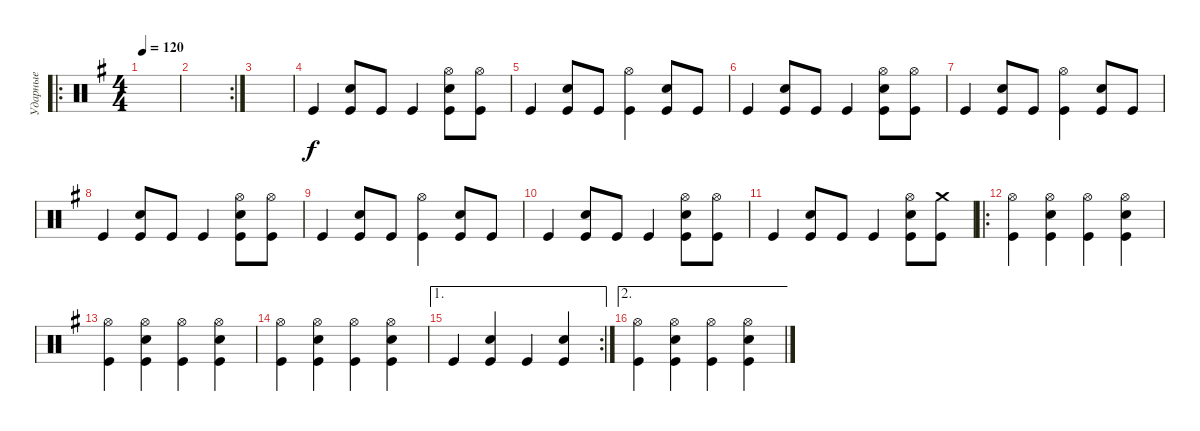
\track ("Ударные" "Ударные") {instrument percussion}
\staff {score}
\articulation defaults
\ro
\ts (4 4)
\tempo 120
\clef neutral
\ks g
|
\rc 2
|
|
"Kick (hit)".4 ("Kick (hit)" "Snare (hit) 2").8 "Kick (hit)".8 "Kick (hit)".4 ("Kick (hit)" "Snare (hit) 2" "Hi-Hat (open)").8 ("Kick (hit)" "Hi-Hat (open)").8 |
"Kick (hit)".4 ("Kick (hit)" "Snare (hit) 2").8 "Kick (hit)".8 ("Kick (hit)" "Hi-Hat (open)").4 ("Kick (hit)" "Snare (hit) 2").8 "Kick (hit)".8 |
"Kick (hit)".4 ("Kick (hit)" "Snare (hit) 2").8 "Kick (hit)".8 "Kick (hit)".4 ("Kick (hit)" "Snare (hit) 2" "Hi-Hat (open)").8 ("Kick (hit)" "Hi-Hat (open)").8 |
"Kick (hit)".4 ("Kick (hit)" "Snare (hit) 2").8 "Kick (hit)".8 ("Kick (hit)" "Hi-Hat (open)").4 ("Kick (hit)" "Snare (hit) 2").8 "Kick (hit)".8 |
"Kick (hit)".4 ("Kick (hit)" "Snare (hit) 2").8 "Kick (hit)".8 "Kick (hit)".4 ("Kick (hit)" "Snare (hit) 2" "Hi-Hat (open)").8 ("Kick (hit)" "Hi-Hat (open)").8 |
"Kick (hit)".4 ("Kick (hit)" "Snare (hit) 2").8 "Kick (hit)".8 ("Kick (hit)" "Hi-Hat (open)").4 ("Kick (hit)" "Snare (hit) 2").8 "Kick (hit)".8 |
"Kick (hit)".4 ("Kick (hit)" "Snare (hit) 2").8 "Kick (hit)".8 "Kick (hit)".4 ("Kick (hit)" "Snare (hit) 2" "Hi-Hat (open)").8 ("Kick (hit)" "Hi-Hat (open)").8 |
"Kick (hit)".4 ("Kick (hit)" "Snare (hit) 2").8 "Kick (hit)".8 "Kick (hit)".4 ("Kick (hit)" "Snare (hit) 2" "Hi-Hat (open)").8 ("Kick (hit)" "Crash medium (hit)").8 |
\ro
("Kick (hit)" "Hi-Hat (open)").4 ("Kick (hit)" "Snare (hit) 2" "Hi-Hat (open)").4 ("Kick (hit)" "Hi-Hat (open)").4 ("Kick (hit)" "Snare (hit) 2" "Hi-Hat (open)").4 |
("Kick (hit)" "Hi-Hat (open)").4 ("Kick (hit)" "Snare (hit) 2" "Hi-Hat (open)").4 ("Kick (hit)" "Hi-Hat (open)").4 ("Kick (hit)" "Snare (hit) 2" "Hi-Hat (open)").4 |
("Kick (hit)" "Hi-Hat (open)").4 ("Kick (hit)" "Snare (hit) 2" "Hi-Hat (open)").4 ("Kick (hit)" "Hi-Hat (open)").4 ("Kick (hit)" "Snare (hit) 2" "Hi-Hat (open)").4 |
\ae 1
\rc 2 "Kick (hit)".4
("Kick (hit)" "Snare (hit) 2").4 "Kick (hit)".4 ("Kick (hit)" "Snare (hit) 2").4 |
\ae 2
("Kick (hit)" "Hi-Hat (open)").4 ("Kick (hit)" "Snare (hit) 2" "Hi-Hat (open)").4 ("Kick (hit)" "Hi-Hat (open)").4 ("Kick (hit)" "Snare (hit) 2" "Hi-Hat (open)").4
